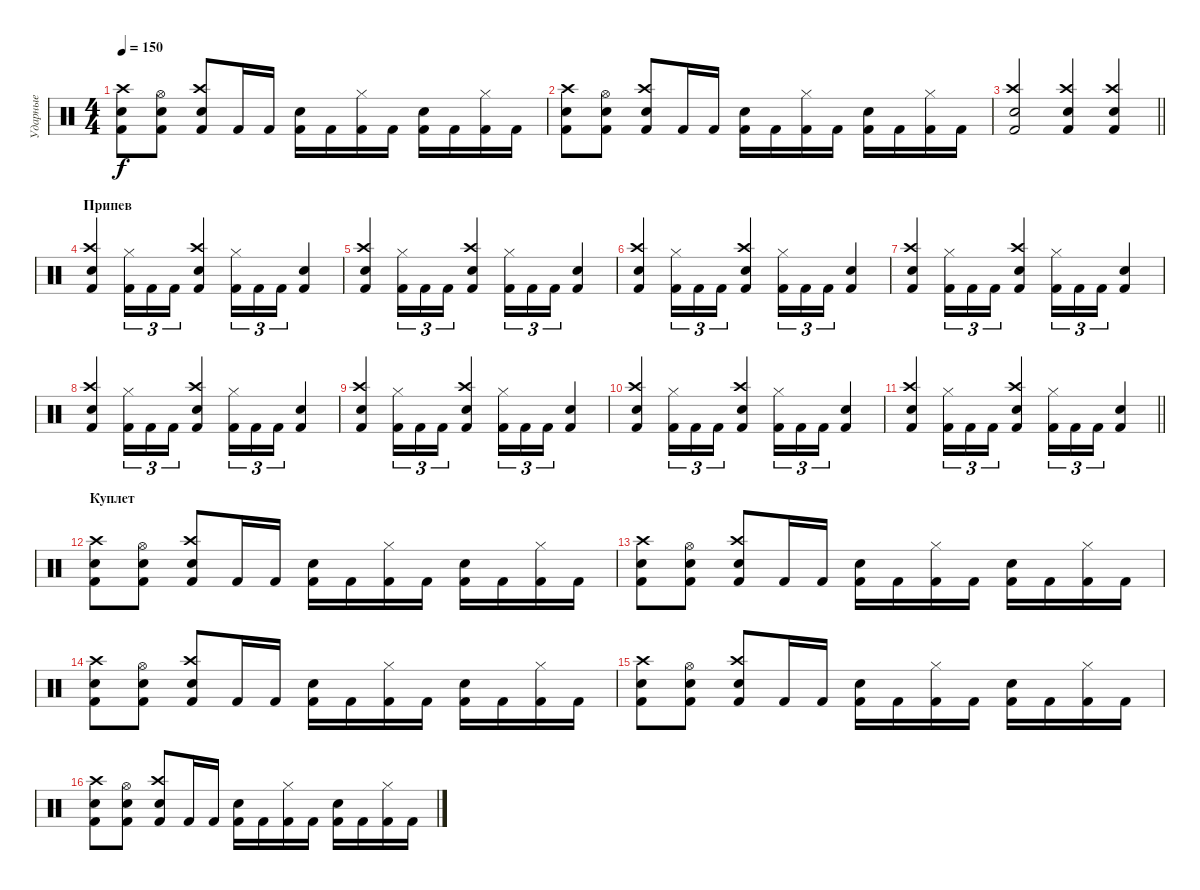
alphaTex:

\track ("Ударные" "Ударные") {instrument percussion}
\staff {score}
\articulation defaults
\ts (4 4)
\tempo 150
\clef neutral
\ks c
("Snare (hit) 2" "Crash high (hit)" "Kick (hit) 2").8{dy f} ("Hi-Hat (open)" "Snare (hit) 2" "Kick (hit) 2").8 ("Kick (hit) 2" "Snare (hit) 2" "Crash high (hit)").8 "Kick (hit) 2".16 "Kick (hit) 2".16 ("Snare (hit) 2" "Kick (hit) 2").16 "Kick (hit) 2".16 ("Hi-Hat (closed)" "Kick (hit) 2").16 "Kick (hit) 2".16 ("Snare (hit) 2" "Kick (hit) 2").16 "Kick (hit) 2".16 ("Hi-Hat (closed)" "Kick (hit) 2").16 "Kick (hit) 2".16 |
("Snare (hit) 2" "Crash high (hit)" "Kick (hit) 2").8 ("Hi-Hat (open)" "Snare (hit) 2" "Kick (hit) 2").8 ("Kick (hit) 2" "Snare (hit) 2" "Crash high (hit)").8 "Kick (hit) 2".16 "Kick (hit) 2".16 ("Snare (hit) 2" "Kick (hit) 2").16 "Kick (hit) 2".16 ("Hi-Hat (closed)" "Kick (hit) 2").16 "Kick (hit) 2".16 ("Snare (hit) 2" "Kick (hit) 2").16 "Kick (hit) 2".16 ("Hi-Hat (closed)" "Kick (hit) 2").16 "Kick (hit) 2".16 |
\barLineRight lightlight
("Crash high (hit)" "Snare (hit) 2" "Kick (hit) 2").2 ("Crash high (hit)" "Snare (hit) 2" "Kick (hit) 2").4 ("Kick (hit) 2" "Snare (hit) 2" "Crash high (hit)").4 |
\section ("" "Припев")
("Kick (hit) 2" "Crash high (hit)" "Snare (hit) 2").4 ("Hi-Hat (closed)" "Kick (hit) 2").16{tu (3 2)} "Kick (hit) 2".16{tu (3 2)} "Kick (hit) 2".16{tu (3 2)} ("Crash high (hit)" "Snare (hit) 2" "Kick (hit) 2").4 ("Hi-Hat (closed)" "Kick (hit) 2").16{tu (3 2)} "Kick (hit) 2".16{tu (3 2)} "Kick (hit) 2".16{tu (3 2)} ("Snare (hit) 2" "Kick (hit) 2").4 |
("Kick (hit) 2" "Crash high (hit)" "Snare (hit) 2").4 ("Hi-Hat (closed)" "Kick (hit) 2").16{tu (3 2)} "Kick (hit) 2".16{tu (3 2)} "Kick (hit) 2".16{tu (3 2)} ("Crash high (hit)" "Snare (hit) 2" "Kick (hit) 2").4 ("Hi-Hat (closed)" "Kick (hit) 2").16{tu (3 2)} "Kick (hit) 2".16{tu (3 2)} "Kick (hit) 2".16{tu (3 2)} ("Snare (hit) 2" "Kick (hit) 2").4 |
("Kick (hit) 2" "Crash high (hit)" "Snare (hit) 2").4 ("Hi-Hat (closed)" "Kick (hit) 2").16{tu (3 2)} "Kick (hit) 2".16{tu (3 2)} "Kick (hit) 2".16{tu (3 2)} ("Crash high (hit)" "Snare (hit) 2" "Kick (hit) 2").4 ("Hi-Hat (closed)" "Kick (hit) 2").16{tu (3 2)} "Kick (hit) 2".16{tu (3 2)} "Kick (hit) 2".16{tu (3 2)} ("Snare (hit) 2" "Kick (hit) 2").4 |
("Kick (hit) 2" "Crash high (hit)" "Snare (hit) 2").4 ("Hi-Hat (closed)" "Kick (hit) 2").16{tu (3 2)} "Kick (hit) 2".16{tu (3 2)} "Kick (hit) 2".16{tu (3 2)} ("Crash high (hit)" "Snare (hit) 2" "Kick (hit) 2").4 ("Hi-Hat (closed)" "Kick (hit) 2").16{tu (3 2)} "Kick (hit) 2".16{tu (3 2)} "Kick (hit) 2".16{tu (3 2)} ("Snare (hit) 2" "Kick (hit) 2").4 |
("Kick (hit) 2" "Crash high (hit)" "Snare (hit) 2").4 ("Hi-Hat (closed)" "Kick (hit) 2").16{tu (3 2)} "Kick (hit) 2".16{tu (3 2)} "Kick (hit) 2".16{tu (3 2)} ("Crash high (hit)" "Snare (hit) 2" "Kick (hit) 2").4 ("Hi-Hat (closed)" "Kick (hit) 2").16{tu (3 2)} "Kick (hit) 2".16{tu (3 2)} "Kick (hit) 2".16{tu (3 2)} ("Snare (hit) 2" "Kick (hit) 2").4 |
("Kick (hit) 2" "Crash high (hit)" "Snare (hit) 2").4 ("Hi-Hat (closed)" "Kick (hit) 2").16{tu (3 2)} "Kick (hit) 2".16{tu (3 2)} "Kick (hit) 2".16{tu (3 2)} ("Crash high (hit)" "Snare (hit) 2" "Kick (hit) 2").4 ("Hi-Hat (closed)" "Kick (hit) 2").16{tu (3 2)} "Kick (hit) 2".16{tu (3 2)} "Kick (hit) 2".16{tu (3 2)} ("Snare (hit) 2" "Kick (hit) 2").4 |
("Kick (hit) 2" "Crash high (hit)" "Snare (hit) 2").4 ("Hi-Hat (closed)" "Kick (hit) 2").16{tu (3 2)} "Kick (hit) 2".16{tu (3 2)} "Kick (hit) 2".16{tu (3 2)} ("Crash high (hit)" "Snare (hit) 2" "Kick (hit) 2").4 ("Hi-Hat (closed)" "Kick (hit) 2").16{tu (3 2)} "Kick (hit) 2".16{tu (3 2)} "Kick (hit) 2".16{tu (3 2)} ("Snare (hit) 2" "Kick (hit) 2").4 |
\barLineRight lightlight
("Kick (hit) 2" "Crash high (hit)" "Snare (hit) 2").4 ("Hi-Hat (closed)" "Kick (hit) 2").16{tu (3 2)} "Kick (hit) 2".16{tu (3 2)} "Kick (hit) 2".16{tu (3 2)} ("Crash high (hit)" "Snare (hit) 2" "Kick (hit) 2").4 ("Hi-Hat (closed)" "Kick (hit) 2").16{tu (3 2)} "Kick (hit) 2".16{tu (3 2)} "Kick (hit) 2".16{tu (3 2)} ("Snare (hit) 2" "Kick (hit) 2").4 |
\section ("" "Куплет")
("Snare (hit) 2" "Crash high (hit)" "Kick (hit) 2").8 ("Hi-Hat (open)" "Snare (hit) 2" "Kick (hit) 2").8 ("Kick (hit) 2" "Snare (hit) 2" "Crash high (hit)").8 "Kick (hit) 2".16 "Kick (hit) 2".16 ("Snare (hit) 2" "Kick (hit) 2").16 "Kick (hit) 2".16 ("Hi-Hat (closed)" "Kick (hit) 2").16 "Kick (hit) 2".16 ("Snare (hit) 2" "Kick (hit) 2").16 "Kick (hit) 2".16 ("Hi-Hat (closed)" "Kick (hit) 2").16 "Kick (hit) 2".16 |
("Snare (hit) 2" "Crash high (hit)" "Kick (hit) 2").8 ("Hi-Hat (open)" "Snare (hit) 2" "Kick (hit) 2").8 ("Kick (hit) 2" "Snare (hit) 2" "Crash high (hit)").8 "Kick (hit) 2".16 "Kick (hit) 2".16 ("Snare (hit) 2" "Kick (hit) 2").16 "Kick (hit) 2".16 ("Hi-Hat (closed)" "Kick (hit) 2").16 "Kick (hit) 2".16 ("Snare (hit) 2" "Kick (hit) 2").16 "Kick (hit) 2".16 ("Hi-Hat (closed)" "Kick (hit) 2").16 "Kick (hit) 2".16 |
("Snare (hit) 2" "Crash high (hit)" "Kick (hit) 2").8 ("Hi-Hat (open)" "Snare (hit) 2" "Kick (hit) 2").8 ("Kick (hit) 2" "Snare (hit) 2" "Crash high (hit)").8 "Kick (hit) 2".16 "Kick (hit) 2".16 ("Snare (hit) 2" "Kick (hit) 2").16 "Kick (hit) 2".16 ("Hi-Hat (closed)" "Kick (hit) 2").16 "Kick (hit) 2".16 ("Snare (hit) 2" "Kick (hit) 2").16 "Kick (hit) 2".16 ("Hi-Hat (closed)" "Kick (hit) 2").16 "Kick (hit) 2".16 |
("Snare (hit) 2" "Crash high (hit)" "Kick (hit) 2").8 ("Hi-Hat (open)" "Snare (hit) 2" "Kick (hit) 2").8 ("Kick (hit) 2" "Snare (hit) 2" "Crash high (hit)").8 "Kick (hit) 2".16 "Kick (hit) 2".16 ("Snare (hit) 2" "Kick (hit) 2").16 "Kick (hit) 2".16 ("Hi-Hat (closed)" "Kick (hit) 2").16 "Kick (hit) 2".16 ("Snare (hit) 2" "Kick (hit) 2").16 "Kick (hit) 2".16 ("Hi-Hat (closed)" "Kick (hit) 2").16 "Kick (hit) 2".16 |
("Snare (hit) 2" "Crash high (hit)" "Kick (hit) 2").8 ("Hi-Hat (open)" "Snare (hit) 2" "Kick (hit) 2").8 ("Kick (hit) 2" "Snare (hit) 2" "Crash high (hit)").8 "Kick (hit) 2".16 "Kick (hit) 2".16 ("Snare (hit) 2" "Kick (hit) 2").16 "Kick (hit) 2".16 ("Hi-Hat (closed)" "Kick (hit) 2").16 "Kick (hit) 2".16 ("Snare (hit) 2" "Kick (hit) 2").16 "Kick (hit) 2".16 ("Hi-Hat (closed)" "Kick (hit) 2").16 "Kick (hit) 2".16
